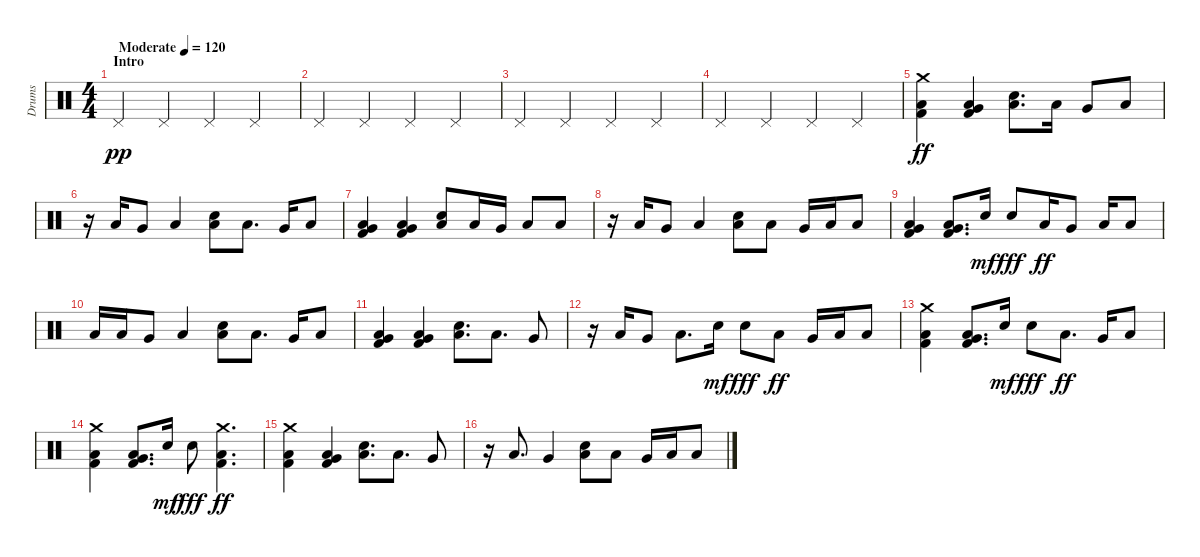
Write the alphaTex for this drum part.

\track ("Drums" "Drums") {instrument percussion}
\staff {score}
\articulation defaults
\ts (4 4)
\section ("" "Intro")
\tempo (120 "Moderate")
\clef neutral
\ks c "Pedal Hi-Hat (hit)".4{dy pp} "Pedal Hi-Hat (hit)".4 "Pedal Hi-Hat (hit)".4 "Pedal Hi-Hat (hit)".4
|
"Pedal Hi-Hat (hit)".4 "Pedal Hi-Hat (hit)".4 "Pedal Hi-Hat (hit)".4 "Pedal Hi-Hat (hit)".4 |
"Pedal Hi-Hat (hit)".4 "Pedal Hi-Hat (hit)".4 "Pedal Hi-Hat (hit)".4 "Pedal Hi-Hat (hit)".4 |
"Pedal Hi-Hat (hit)".4 "Pedal Hi-Hat (hit)".4 "Pedal Hi-Hat (hit)".4 "Pedal Hi-Hat (hit)".4 |
("Crash medium (hit)" "Low Floor Tom (hit)" "Kick (hit) 2").4{dy ff} ("Very Low Tom (hit)" "Low Floor Tom (hit)" "Kick (hit) 2").4 ("Electric Snare (hit)" "Low Floor Tom (hit)").8{d} "Low Tom (hit)".16 "Very Low Tom (hit)".8 "Low Floor Tom (hit)".8 |
r.16 "Low Tom (hit)".16 "Very Low Tom (hit)".8 "Low Floor Tom (hit)".4 ("Electric Snare (hit)" "Low Floor Tom (hit)").8 "Low Tom (hit)".8{d} "Very Low Tom (hit)".16 "Low Floor Tom (hit)".8 |
("Very Low Tom (hit)" "Low Floor Tom (hit)" "Kick (hit) 2").4 ("Very Low Tom (hit)" "Low Floor Tom (hit)" "Kick (hit) 2").4 ("Electric Snare (hit)" "Low Floor Tom (hit)").8 "Low Tom (hit)".16 "Very Low Tom (hit)".16 "Low Tom (hit)".8 "Low Floor Tom (hit)".8 |
r.16 "Low Tom (hit)".16 "Very Low Tom (hit)".8 "Low Floor Tom (hit)".4 ("Electric Snare (hit)" "Low Floor Tom (hit)").8 "Low Tom (hit)".8 "Very Low Tom (hit)".16 "Low Tom (hit)".16 "Low Floor Tom (hit)".8 |
("Very Low Tom (hit)" "Low Floor Tom (hit)" "Kick (hit) 2").4 ("Very Low Tom (hit)" "Low Floor Tom (hit)" "Kick (hit) 2").8{d} "Electric Snare (hit)".16{dy mf} "Electric Snare (hit)".8{dy fff} "Low Tom (hit)".16{dy ff} "Very Low Tom (hit)".8 "Low Tom (hit)".16 "Low Floor Tom (hit)".8 |
"Low Tom (hit)".16 "Low Tom (hit)".16 "Very Low Tom (hit)".8 "Low Floor Tom (hit)".4 ("Electric Snare (hit)" "Low Floor Tom (hit)").8 "Low Tom (hit)".8{d} "Very Low Tom (hit)".16 "Low Floor Tom (hit)".8 |
("Very Low Tom (hit)" "Low Floor Tom (hit)" "Kick (hit) 2").4 ("Very Low Tom (hit)" "Low Floor Tom (hit)" "Kick (hit) 2").4 ("Electric Snare (hit)" "Low Floor Tom (hit)").8{d} "Low Tom (hit)".8{d} "Very Low Tom (hit)".8 |
r.16 "Low Tom (hit)".16 "Very Low Tom (hit)".8 "Low Floor Tom (hit)".8{d} "Electric Snare (hit)".16{dy mf} "Electric Snare (hit)".8{dy fff} "Low Tom (hit)".8{dy ff} "Very Low Tom (hit)".16 "Low Tom (hit)".16 "Low Floor Tom (hit)".8 |
("Crash medium (hit)" "Low Floor Tom (hit)" "Kick (hit) 2").4 ("Very Low Tom (hit)" "Low Floor Tom (hit)" "Kick (hit) 2").8{d} "Electric Snare (hit)".16{dy mf} "Electric Snare (hit)".8{dy fff} "Low Tom (hit)".8{d dy ff} "Very Low Tom (hit)".16 "Low Floor Tom (hit)".8 |
("Crash medium (hit)" "Low Floor Tom (hit)" "Kick (hit) 2").4 ("Very Low Tom (hit)" "Low Floor Tom (hit)" "Kick (hit) 2").8{d} "Electric Snare (hit)".16{dy mf} "Electric Snare (hit)".8{dy fff} ("Crash medium (hit)" "Low Floor Tom (hit)" "Kick (hit) 2").4{d dy ff} |
("Crash medium (hit)" "Low Floor Tom (hit)" "Kick (hit) 2").4 ("Very Low Tom (hit)" "Low Floor Tom (hit)" "Kick (hit) 2").4 ("Electric Snare (hit)" "Low Floor Tom (hit)").8{d} "Low Tom (hit)".8{d} "Very Low Tom (hit)".8 |
r.16 "Low Tom (hit)".8{d} "Very Low Tom (hit)".4 ("Electric Snare (hit)" "Low Floor Tom (hit)").8 "Low Tom (hit)".8 "Very Low Tom (hit)".16 "Low Tom (hit)".16 "Low Floor Tom (hit)".8
